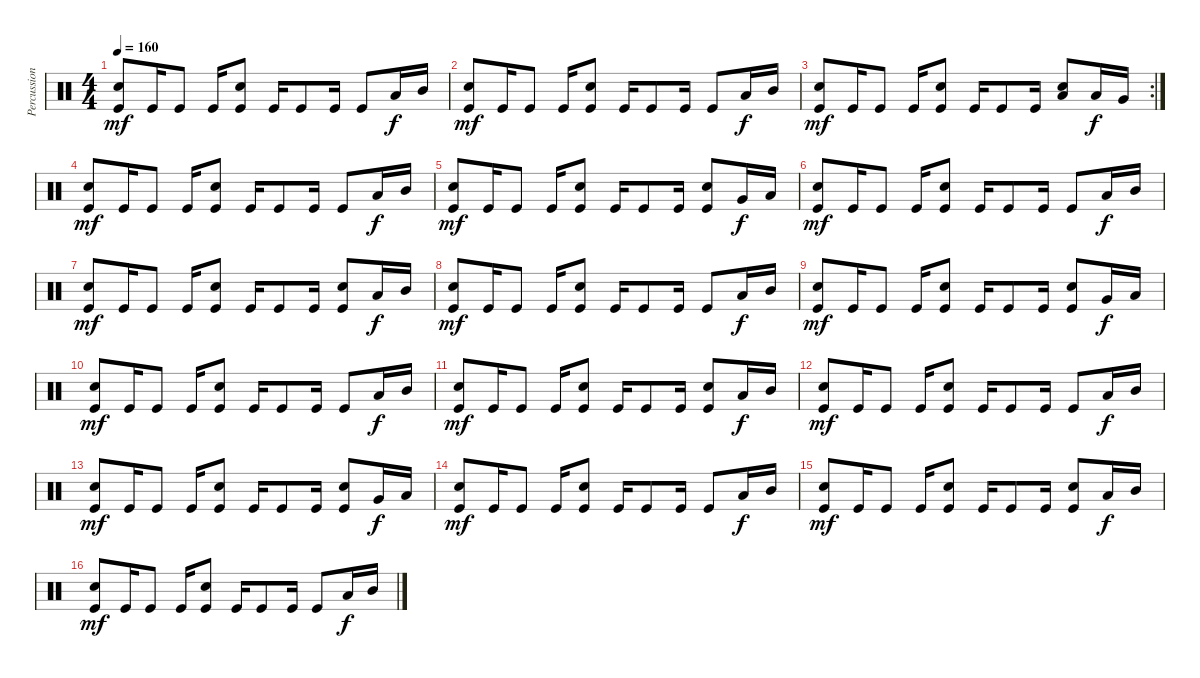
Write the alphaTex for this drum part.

\track ("Percussion" "Percussion") {instrument percussion}
\staff {score}
\articulation defaults
\ts (4 4)
\tempo 160
\clef neutral
\ks c
("Kick (hit)" "Electric Snare (hit)").8{dy mf} "Kick (hit)".16 "Kick (hit)".8 "Kick (hit)".16 ("Kick (hit)" "Electric Snare (hit)").8 "Kick (hit)".16 "Kick (hit)".8 "Kick (hit)".16 "Kick (hit)".8 "Low Tom (hit)".16{dy f} "Mid Tom (hit)".16 |
("Kick (hit)" "Electric Snare (hit)").8{dy mf} "Kick (hit)".16 "Kick (hit)".8 "Kick (hit)".16 ("Kick (hit)" "Snare (hit) 2").8 "Kick (hit)".16 "Kick (hit)".8 "Kick (hit)".16 "Kick (hit)".8 "Low Tom (hit)".16{dy f} "Mid Tom (hit)".16 |
\rc 2
("Kick (hit)" "Electric Snare (hit)").8{dy mf} "Kick (hit)".16 "Kick (hit)".8 "Kick (hit)".16 ("Kick (hit)" "Electric Snare (hit)").8 "Kick (hit)".16 "Kick (hit)".8 "Kick (hit)".16 ("Low Tom (hit)" "Electric Snare (hit)").8 "Low Tom (hit)".16{dy f} "Very Low Tom (hit)".16 |
("Kick (hit)" "Electric Snare (hit)").8{dy mf} "Kick (hit)".16 "Kick (hit)".8 "Kick (hit)".16 ("Kick (hit)" "Snare (hit) 2").8 "Kick (hit)".16 "Kick (hit)".8 "Kick (hit)".16 "Kick (hit)".8 "Low Tom (hit)".16{dy f} "Mid Tom (hit)".16 |
("Kick (hit)" "Electric Snare (hit)").8{dy mf} "Kick (hit)".16 "Kick (hit)".8 "Kick (hit)".16 ("Kick (hit)" "Snare (hit) 2").8 "Kick (hit)".16 "Kick (hit)".8 "Kick (hit)".16 ("Kick (hit)" "Snare (hit) 2").8 "Very Low Tom (hit)".16{dy f} "Low Tom (hit)".16 |
("Kick (hit)" "Electric Snare (hit)").8{dy mf} "Kick (hit)".16 "Kick (hit)".8 "Kick (hit)".16 ("Kick (hit)" "Snare (hit) 2").8 "Kick (hit)".16 "Kick (hit)".8 "Kick (hit)".16 "Kick (hit)".8 "Low Tom (hit)".16{dy f} "Mid Tom (hit)".16 |
("Kick (hit)" "Electric Snare (hit)").8{dy mf} "Kick (hit)".16 "Kick (hit)".8 "Kick (hit)".16 ("Kick (hit)" "Snare (hit) 2").8 "Kick (hit)".16 "Kick (hit)".8 "Kick (hit)".16 ("Kick (hit)" "Snare (hit) 2").8 "Low Tom (hit)".16{dy f} "Mid Tom (hit)".16 |
("Kick (hit)" "Electric Snare (hit)").8{dy mf} "Kick (hit)".16 "Kick (hit)".8 "Kick (hit)".16 ("Kick (hit)" "Snare (hit) 2").8 "Kick (hit)".16 "Kick (hit)".8 "Kick (hit)".16 "Kick (hit)".8 "Low Tom (hit)".16{dy f} "Mid Tom (hit)".16 |
("Kick (hit)" "Electric Snare (hit)").8{dy mf} "Kick (hit)".16 "Kick (hit)".8 "Kick (hit)".16 ("Kick (hit)" "Snare (hit) 2").8 "Kick (hit)".16 "Kick (hit)".8 "Kick (hit)".16 ("Kick (hit)" "Snare (hit) 2").8 "Very Low Tom (hit)".16{dy f} "Low Tom (hit)".16 |
("Kick (hit)" "Electric Snare (hit)").8{dy mf} "Kick (hit)".16 "Kick (hit)".8 "Kick (hit)".16 ("Kick (hit)" "Snare (hit) 2").8 "Kick (hit)".16 "Kick (hit)".8 "Kick (hit)".16 "Kick (hit)".8 "Low Tom (hit)".16{dy f} "Mid Tom (hit)".16 |
("Kick (hit)" "Electric Snare (hit)").8{dy mf} "Kick (hit)".16 "Kick (hit)".8 "Kick (hit)".16 ("Kick (hit)" "Snare (hit) 2").8 "Kick (hit)".16 "Kick (hit)".8 "Kick (hit)".16 ("Kick (hit)" "Snare (hit) 2").8 "Low Tom (hit)".16{dy f} "Mid Tom (hit)".16 |
("Kick (hit)" "Electric Snare (hit)").8{dy mf} "Kick (hit)".16 "Kick (hit)".8 "Kick (hit)".16 ("Kick (hit)" "Snare (hit) 2").8 "Kick (hit)".16 "Kick (hit)".8 "Kick (hit)".16 "Kick (hit)".8 "Low Tom (hit)".16{dy f} "Mid Tom (hit)".16 |
("Kick (hit)" "Electric Snare (hit)").8{dy mf} "Kick (hit)".16 "Kick (hit)".8 "Kick (hit)".16 ("Kick (hit)" "Snare (hit) 2").8 "Kick (hit)".16 "Kick (hit)".8 "Kick (hit)".16 ("Kick (hit)" "Snare (hit) 2").8 "Very Low Tom (hit)".16{dy f} "Low Tom (hit)".16 |
("Kick (hit)" "Electric Snare (hit)").8{dy mf} "Kick (hit)".16 "Kick (hit)".8 "Kick (hit)".16 ("Kick (hit)" "Snare (hit) 2").8 "Kick (hit)".16 "Kick (hit)".8 "Kick (hit)".16 "Kick (hit)".8 "Low Tom (hit)".16{dy f} "Mid Tom (hit)".16 |
("Kick (hit)" "Electric Snare (hit)").8{dy mf} "Kick (hit)".16 "Kick (hit)".8 "Kick (hit)".16 ("Kick (hit)" "Snare (hit) 2").8 "Kick (hit)".16 "Kick (hit)".8 "Kick (hit)".16 ("Kick (hit)" "Snare (hit) 2").8 "Low Tom (hit)".16{dy f} "Mid Tom (hit)".16 |
("Kick (hit)" "Electric Snare (hit)").8{dy mf} "Kick (hit)".16 "Kick (hit)".8 "Kick (hit)".16 ("Kick (hit)" "Snare (hit) 2").8 "Kick (hit)".16 "Kick (hit)".8 "Kick (hit)".16 "Kick (hit)".8 "Low Tom (hit)".16{dy f} "Mid Tom (hit)".16
